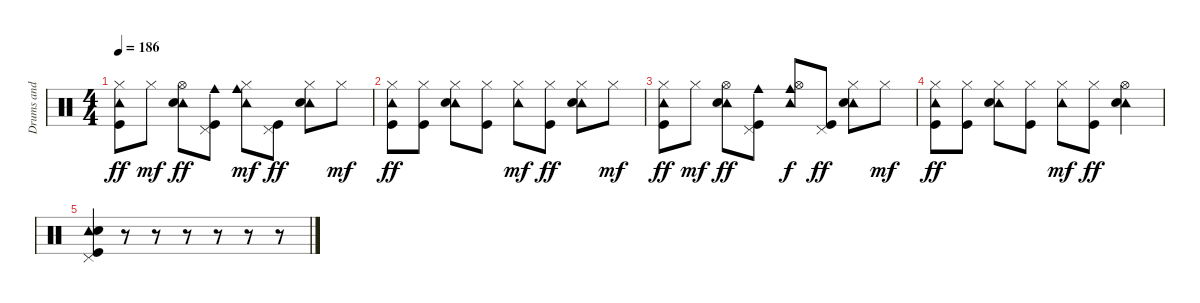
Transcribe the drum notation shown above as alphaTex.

\track ("Drums and Percs" "Drums and ") {instrument percussion}
\staff {score}
\articulation defaults
\ts (4 4)
\tempo 186
\clef neutral
\ks c
("Hi-Hat (closed)" "Tambourine (hit)" "Kick (hit)").8{dy ff} "Hi-Hat (closed)".8{dy mf} ("Hi-Hat (open)" "Tambourine (hit)" "Electric Snare (hit)").8{dy ff} ("Pedal Hi-Hat (hit)" "Cowbell medium (hit)" "Kick (hit)").8 ("Hi-Hat (closed)" "Tambourine (hit)" "Cowbell medium (hit)").8{dy mf} ("Pedal Hi-Hat (hit)" "Kick (hit)").8{dy ff} ("Hi-Hat (closed)" "Tambourine (hit)" "Electric Snare (hit)").8 "Hi-Hat (closed)".8{dy mf} |
("Hi-Hat (closed)" "Tambourine (hit)" "Kick (hit)").8{dy ff} ("Hi-Hat (closed)" "Kick (hit)").8 ("Hi-Hat (closed)" "Tambourine (hit)" "Electric Snare (hit)").8 ("Hi-Hat (closed)" "Kick (hit)").8 ("Hi-Hat (closed)" "Tambourine (hit)").8{dy mf} ("Hi-Hat (closed)" "Kick (hit)").8{dy ff} ("Hi-Hat (closed)" "Tambourine (hit)" "Electric Snare (hit)").8 "Hi-Hat (closed)".8{dy mf} |
("Hi-Hat (closed)" "Tambourine (hit)" "Kick (hit)").8{dy ff} "Hi-Hat (closed)".8{dy mf} ("Hi-Hat (open)" "Tambourine (hit)" "Electric Snare (hit)").8{dy ff} ("Pedal Hi-Hat (hit)" "Cowbell medium (hit)" "Kick (hit)").8 ("Hi-Hat (open)" "Tambourine (hit)" "Cowbell medium (hit)").8{dy f} ("Pedal Hi-Hat (hit)" "Kick (hit)").8{dy ff} ("Hi-Hat (closed)" "Tambourine (hit)" "Electric Snare (hit)").8 "Hi-Hat (closed)".8{dy mf} |
("Hi-Hat (closed)" "Tambourine (hit)" "Kick (hit)").8{dy ff} ("Hi-Hat (closed)" "Kick (hit)").8 ("Hi-Hat (closed)" "Tambourine (hit)" "Electric Snare (hit)").8 ("Hi-Hat (closed)" "Kick (hit)").8 ("Hi-Hat (closed)" "Tambourine (hit)").8{dy mf} ("Hi-Hat (closed)" "Kick (hit)").8{dy ff} ("Hi-Hat (open)" "Tambourine (hit)" "Electric Snare (hit)").4 |
("Pedal Hi-Hat (hit)" "Tambourine (hit)" "Electric Snare (hit)" "Kick (hit)").4 r.8 r.8 r.8 r.8 r.8 r.8
